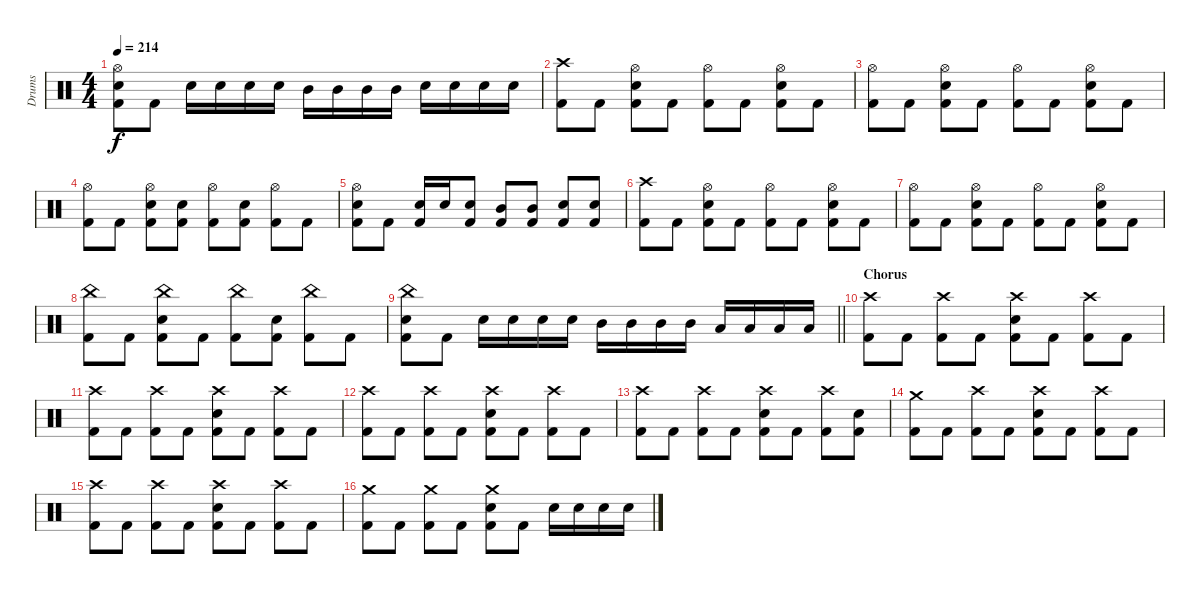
\track ("Drums" "Drums") {instrument percussion}
\staff {score}
\articulation defaults
\ts (4 4)
\tempo 214
\clef neutral
\ks c
("Hi-Hat (open)" "Snare (hit) 2" "Kick (hit) 2").8{dy f} "Kick (hit) 2".8 "Snare (hit) 2".16 "Snare (hit) 2".16 "Snare (hit) 2".16 "Snare (hit) 2".16 "Mid Tom (hit)".16 "Mid Tom (hit)".16 "Mid Tom (hit)".16 "Mid Tom (hit)".16 "Snare (hit) 2".16 "Snare (hit) 2".16 "Snare (hit) 2".16 "Snare (hit) 2".16 |
("Crash high (hit)" "Kick (hit) 2").8 "Kick (hit) 2".8 ("Hi-Hat (open)" "Snare (hit) 2" "Kick (hit) 2").8 "Kick (hit) 2".8 ("Hi-Hat (open)" "Kick (hit) 2").8 "Kick (hit) 2".8 ("Hi-Hat (open)" "Snare (hit) 2" "Kick (hit) 2").8 "Kick (hit) 2".8 |
("Hi-Hat (open)" "Kick (hit) 2").8 "Kick (hit) 2".8 ("Hi-Hat (open)" "Snare (hit) 2" "Kick (hit) 2").8 "Kick (hit) 2".8 ("Hi-Hat (open)" "Kick (hit) 2").8 "Kick (hit) 2".8 ("Hi-Hat (open)" "Snare (hit) 2" "Kick (hit) 2").8 "Kick (hit) 2".8 |
("Hi-Hat (open)" "Kick (hit) 2").8 "Kick (hit) 2".8 ("Hi-Hat (open)" "Snare (hit) 2" "Kick (hit) 2").8 ("Snare (hit) 2" "Kick (hit) 2").8 ("Hi-Hat (open)" "Kick (hit) 2").8 ("Snare (hit) 2" "Kick (hit) 2").8 ("Hi-Hat (open)" "Kick (hit) 2").8 "Kick (hit) 2".8 |
("Hi-Hat (open)" "Snare (hit) 2" "Kick (hit) 2").8 "Kick (hit) 2".8 ("Snare (hit) 2" "Kick (hit) 2").16 "Snare (hit) 2".16 ("Snare (hit) 2" "Kick (hit) 2").8 ("Mid Tom (hit)" "Kick (hit) 2").8 ("Mid Tom (hit)" "Kick (hit) 2").8 ("Snare (hit) 2" "Kick (hit) 2").8 ("Snare (hit) 2" "Kick (hit) 2").8 |
("Crash high (hit)" "Kick (hit) 2").8 "Kick (hit) 2".8 ("Hi-Hat (open)" "Snare (hit) 2" "Kick (hit) 2").8 "Kick (hit) 2".8 ("Hi-Hat (open)" "Kick (hit) 2").8 "Kick (hit) 2".8 ("Hi-Hat (open)" "Snare (hit) 2" "Kick (hit) 2").8 "Kick (hit) 2".8 |
("Hi-Hat (open)" "Kick (hit) 2").8 "Kick (hit) 2".8 ("Hi-Hat (open)" "Snare (hit) 2" "Kick (hit) 2").8 "Kick (hit) 2".8 ("Hi-Hat (open)" "Kick (hit) 2").8 "Kick (hit) 2".8 ("Hi-Hat (open)" "Snare (hit) 2" "Kick (hit) 2").8 "Kick (hit) 2".8 |
("China (hit)" "Kick (hit) 2").8 "Kick (hit) 2".8 ("China (hit)" "Snare (hit) 2" "Kick (hit) 2").8 "Kick (hit) 2".8 ("China (hit)" "Kick (hit) 2").8 ("Snare (hit) 2" "Kick (hit) 2").8 ("China (hit)" "Kick (hit) 2").8 "Kick (hit) 2".8 |
\barLineRight lightlight
("China (hit)" "Snare (hit) 2" "Kick (hit) 2").8 "Kick (hit) 2".8 "Snare (hit) 2".16 "Snare (hit) 2".16 "Snare (hit) 2".16 "Snare (hit) 2".16 "Mid Tom (hit)".16 "Mid Tom (hit)".16 "Mid Tom (hit)".16 "Mid Tom (hit)".16 "Low Tom (hit)".16 "Low Tom (hit)".16 "Low Tom (hit)".16 "Low Tom (hit)".16 |
\section ("" "Chorus")
("Crash high (hit)" "Kick (hit) 2").8 "Kick (hit) 2".8 ("Crash high (hit)" "Kick (hit) 2").8 "Kick (hit) 2".8 ("Crash high (hit)" "Snare (hit) 2" "Kick (hit) 2").8 "Kick (hit) 2".8 ("Crash high (hit)" "Kick (hit) 2").8 "Kick (hit) 2".8 |
("Crash high (hit)" "Kick (hit) 2").8 "Kick (hit) 2".8 ("Crash high (hit)" "Kick (hit) 2").8 "Kick (hit) 2".8 ("Crash high (hit)" "Snare (hit) 2" "Kick (hit) 2").8 "Kick (hit) 2".8 ("Crash high (hit)" "Kick (hit) 2").8 "Kick (hit) 2".8 |
("Crash high (hit)" "Kick (hit) 2").8 "Kick (hit) 2".8 ("Crash high (hit)" "Kick (hit) 2").8 "Kick (hit) 2".8 ("Crash high (hit)" "Snare (hit) 2" "Kick (hit) 2").8 "Kick (hit) 2".8 ("Crash high (hit)" "Kick (hit) 2").8 "Kick (hit) 2".8 |
("Crash high (hit)" "Kick (hit) 2").8 "Kick (hit) 2".8 ("Crash high (hit)" "Kick (hit) 2").8 "Kick (hit) 2".8 ("Crash high (hit)" "Snare (hit) 2" "Kick (hit) 2").8 "Kick (hit) 2".8 ("Crash high (hit)" "Kick (hit) 2").8 ("Snare (hit) 2" "Kick (hit) 2").8 |
("Crash medium (hit)" "Kick (hit) 2").8 "Kick (hit) 2".8 ("Crash high (hit)" "Kick (hit) 2").8 "Kick (hit) 2".8 ("Crash high (hit)" "Snare (hit) 2" "Kick (hit) 2").8 "Kick (hit) 2".8 ("Crash high (hit)" "Kick (hit) 2").8 "Kick (hit) 2".8 |
("Crash high (hit)" "Kick (hit) 2").8 "Kick (hit) 2".8 ("Crash high (hit)" "Kick (hit) 2").8 "Kick (hit) 2".8 ("Crash high (hit)" "Snare (hit) 2" "Kick (hit) 2").8 "Kick (hit) 2".8 ("Crash high (hit)" "Kick (hit) 2").8 "Kick (hit) 2".8 |
("Crash medium (hit)" "Kick (hit) 2").8 "Kick (hit) 2".8 ("Crash medium (hit)" "Kick (hit) 2").8 "Kick (hit) 2".8 ("Crash medium (hit)" "Snare (hit) 2" "Kick (hit) 2").8 "Kick (hit) 2".8 "Snare (hit) 2".16 "Snare (hit) 2".16 "Snare (hit) 2".16 "Snare (hit) 2".16
